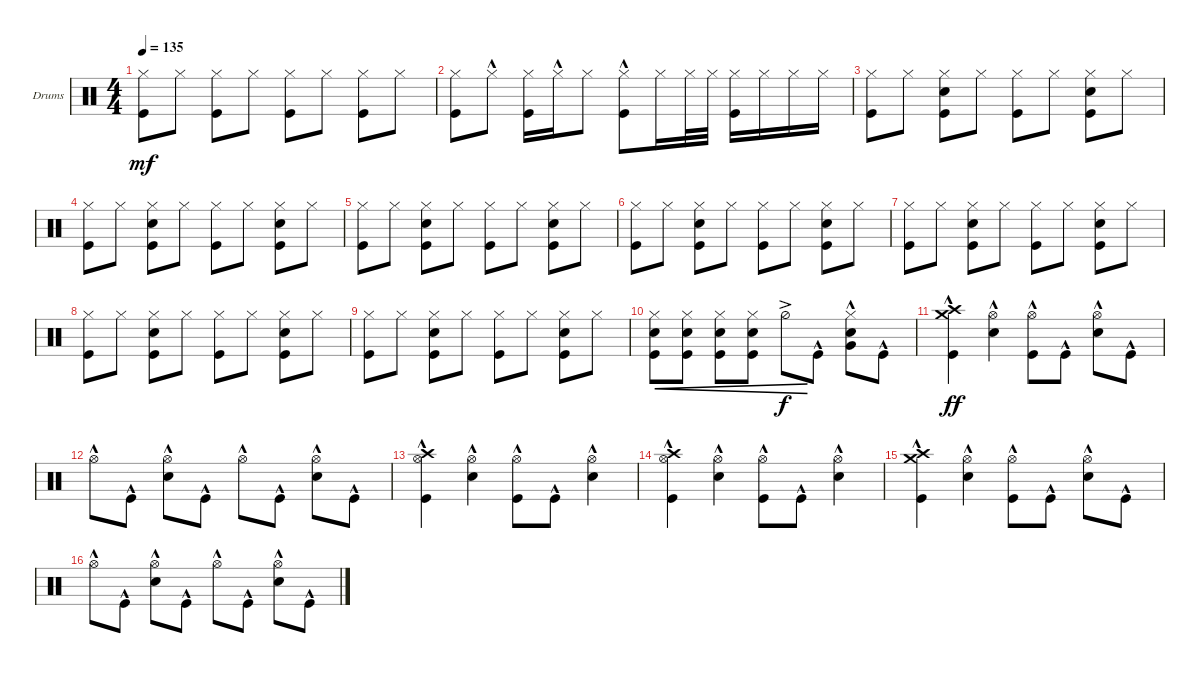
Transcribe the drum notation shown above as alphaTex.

\defaultSystemsLayout 4
\bracketExtendMode groupsimilarinstruments
\firstSystemTrackNameOrientation horizontal
\otherSystemsTrackNameOrientation horizontal
\track ("Drumkit" "Drums") {instrument percussion}
\staff {score}
\articulation defaults
\ts (4 4)
\tempo 135
\clef neutral
\ks c
("Hi-Hat (closed)" "Kick (hit)").8{dy mf} "Hi-Hat (closed)".8 ("Kick (hit)" "Hi-Hat (closed)").8 "Hi-Hat (closed)".8 ("Kick (hit)" "Hi-Hat (closed)").8 "Hi-Hat (closed)".8 ("Kick (hit)" "Hi-Hat (closed)").8 "Hi-Hat (closed)".8 |
("Hi-Hat (closed)" "Kick (hit)").8 "Hi-Hat (closed)"{hac}.8 ("Kick (hit)" "Hi-Hat (closed)").16 "Hi-Hat (closed)"{hac}.16 "Hi-Hat (closed)".8 ("Kick (hit)" "Hi-Hat (closed)"{hac}).8 "Hi-Hat (closed)".16 "Hi-Hat (closed)".32 "Hi-Hat (closed)".32 ("Kick (hit)" "Hi-Hat (closed)").16 "Hi-Hat (closed)".16 "Hi-Hat (closed)".16 "Hi-Hat (closed)".16 |
("Hi-Hat (closed)" "Kick (hit)").8 "Hi-Hat (closed)".8 ("Kick (hit)" "Hi-Hat (closed)" "Snare (hit) 2").8 "Hi-Hat (closed)".8 ("Kick (hit)" "Hi-Hat (closed)").8 "Hi-Hat (closed)".8 ("Kick (hit)" "Hi-Hat (closed)" "Snare (hit) 2").8 "Hi-Hat (closed)".8 |
("Hi-Hat (closed)" "Kick (hit)").8 "Hi-Hat (closed)".8 ("Kick (hit)" "Hi-Hat (closed)" "Snare (hit) 2").8 "Hi-Hat (closed)".8 ("Kick (hit)" "Hi-Hat (closed)").8 "Hi-Hat (closed)".8 ("Kick (hit)" "Hi-Hat (closed)" "Snare (hit) 2").8 "Hi-Hat (closed)".8 |
("Hi-Hat (closed)" "Kick (hit)").8 "Hi-Hat (closed)".8 ("Kick (hit)" "Hi-Hat (closed)" "Snare (hit) 2").8 "Hi-Hat (closed)".8 ("Kick (hit)" "Hi-Hat (closed)").8 "Hi-Hat (closed)".8 ("Kick (hit)" "Hi-Hat (closed)" "Snare (hit) 2").8 "Hi-Hat (closed)".8 |
("Hi-Hat (closed)" "Kick (hit)").8 "Hi-Hat (closed)".8 ("Kick (hit)" "Hi-Hat (closed)" "Snare (hit) 2").8 "Hi-Hat (closed)".8 ("Kick (hit)" "Hi-Hat (closed)").8 "Hi-Hat (closed)".8 ("Kick (hit)" "Hi-Hat (closed)" "Snare (hit) 2").8 "Hi-Hat (closed)".8 |
("Hi-Hat (closed)" "Kick (hit)").8 "Hi-Hat (closed)".8 ("Kick (hit)" "Hi-Hat (closed)" "Snare (hit) 2").8 "Hi-Hat (closed)".8 ("Kick (hit)" "Hi-Hat (closed)").8 "Hi-Hat (closed)".8 ("Kick (hit)" "Hi-Hat (closed)" "Snare (hit) 2").8 "Hi-Hat (closed)".8 |
("Hi-Hat (closed)" "Kick (hit)").8 "Hi-Hat (closed)".8 ("Kick (hit)" "Hi-Hat (closed)" "Snare (hit) 2").8 "Hi-Hat (closed)".8 ("Kick (hit)" "Hi-Hat (closed)").8 "Hi-Hat (closed)".8 ("Kick (hit)" "Hi-Hat (closed)" "Snare (hit) 2").8 "Hi-Hat (closed)".8 |
("Hi-Hat (closed)" "Kick (hit)").8 "Hi-Hat (closed)".8 ("Kick (hit)" "Hi-Hat (closed)" "Snare (hit) 2").8 "Hi-Hat (closed)".8 ("Kick (hit)" "Hi-Hat (closed)").8 "Hi-Hat (closed)".8 ("Kick (hit)" "Hi-Hat (closed)" "Snare (hit) 2").8 "Hi-Hat (closed)".8 |
("Hi-Hat (closed)" "Kick (hit)" "Snare (hit) 2").8{cre} ("Hi-Hat (closed)" "Snare (hit) 2" "Kick (hit)").8{cre} ("Kick (hit)" "Hi-Hat (closed)" "Snare (hit) 2").8{cre} ("Hi-Hat (closed)" "Snare (hit) 2" "Kick (hit)").8{cre} "Hi-Hat (half)"{ac}.8{cre dy f} "Kick (hit)"{hac}.8 ("Snare (hit) 2"{hac} "Very Low Tom (hit)"{hac} "Hi-Hat (closed)"{hac}).8 "Kick (hit)"{hac}.8 |
("Kick (hit)"{hac} "Crash high (hit)"{hac} "Crash medium (hit)"{hac}).4{dy ff} ("Hi-Hat (open)"{hac} "Snare (hit) 2"{hac}).4 ("Kick (hit)"{hac} "Hi-Hat (open)"{hac}).8 "Kick (hit)"{hac}.8 ("Snare (hit) 2"{hac} "Hi-Hat (open)"{hac}).8 "Kick (hit)"{hac}.8 |
"Hi-Hat (open)"{hac}.8 "Kick (hit)"{hac}.8 ("Hi-Hat (open)"{hac} "Snare (hit) 2"{hac}).8 "Kick (hit)"{hac}.8 "Hi-Hat (open)"{hac}.8 "Kick (hit)"{hac}.8 ("Snare (hit) 2"{hac} "Hi-Hat (open)"{hac}).8 "Kick (hit)"{hac}.8 |
("Kick (hit)"{hac} "Crash high (hit)"{hac} "Hi-Hat (open)"{hac}).4 ("Snare (hit) 2"{hac} "Hi-Hat (open)"{hac}).4 ("Kick (hit)"{hac} "Hi-Hat (open)"{hac}).8 "Kick (hit)"{hac}.8 ("Snare (hit) 2"{hac} "Hi-Hat (open)"{hac}).4 |
("Kick (hit)"{hac} "Crash high (hit)"{hac} "Hi-Hat (open)"{hac}).4 ("Snare (hit) 2"{hac} "Hi-Hat (open)"{hac}).4 ("Kick (hit)"{hac} "Hi-Hat (open)"{hac}).8 "Kick (hit)"{hac}.8 ("Snare (hit) 2"{hac} "Hi-Hat (open)"{hac}).4 |
("Kick (hit)"{hac} "Crash high (hit)"{hac} "Crash medium (hit)"{hac}).4 ("Hi-Hat (open)"{hac} "Snare (hit) 2"{hac}).4 ("Kick (hit)"{hac} "Hi-Hat (open)"{hac}).8 "Kick (hit)"{hac}.8 ("Snare (hit) 2"{hac} "Hi-Hat (open)"{hac}).8 "Kick (hit)"{hac}.8 |
"Hi-Hat (open)"{hac}.8 "Kick (hit)"{hac}.8 ("Hi-Hat (open)"{hac} "Snare (hit) 2"{hac}).8 "Kick (hit)"{hac}.8 "Hi-Hat (open)"{hac}.8 "Kick (hit)"{hac}.8 ("Snare (hit) 2"{hac} "Hi-Hat (open)"{hac}).8 "Kick (hit)"{hac}.8
